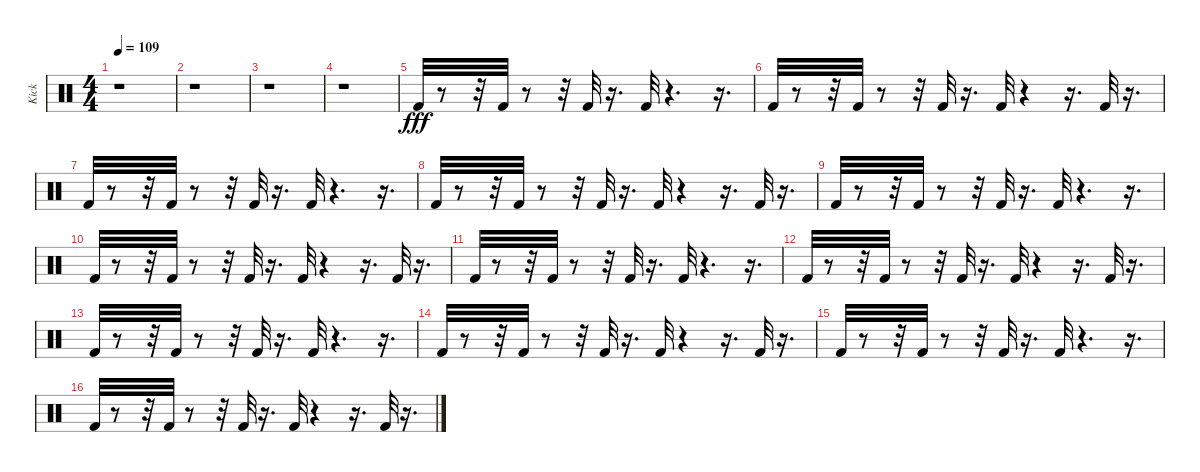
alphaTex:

\track ("Kick" "Kick") {instrument percussion}
\staff {score}
\articulation defaults
\ts (4 4)
\tempo 109
\clef neutral
\ks c
r.1{dy fff} |
r.1 |
r.1 |
r.1 |
"Kick (hit) 2".32 r.8 r.32 "Kick (hit) 2".32 r.8 r.32 "Kick (hit) 2".32 r.16{d} "Kick (hit) 2".32 r.4{d} r.16{d} |
"Kick (hit) 2".32 r.8 r.32 "Kick (hit) 2".32 r.8 r.32 "Kick (hit) 2".32 r.16{d} "Kick (hit) 2".32 r.4 r.16{d} "Kick (hit) 2".32 r.16{d} |
"Kick (hit) 2".32 r.8 r.32 "Kick (hit) 2".32 r.8 r.32 "Kick (hit) 2".32 r.16{d} "Kick (hit) 2".32 r.4{d} r.16{d} |
"Kick (hit) 2".32 r.8 r.32 "Kick (hit) 2".32 r.8 r.32 "Kick (hit) 2".32 r.16{d} "Kick (hit) 2".32 r.4 r.16{d} "Kick (hit) 2".32 r.16{d} |
"Kick (hit) 2".32 r.8 r.32 "Kick (hit) 2".32 r.8 r.32 "Kick (hit) 2".32 r.16{d} "Kick (hit) 2".32 r.4{d} r.16{d} |
"Kick (hit) 2".32 r.8 r.32 "Kick (hit) 2".32 r.8 r.32 "Kick (hit) 2".32 r.16{d} "Kick (hit) 2".32 r.4 r.16{d} "Kick (hit) 2".32 r.16{d} |
"Kick (hit) 2".32 r.8 r.32 "Kick (hit) 2".32 r.8 r.32 "Kick (hit) 2".32 r.16{d} "Kick (hit) 2".32 r.4{d} r.16{d} |
"Kick (hit) 2".32 r.8 r.32 "Kick (hit) 2".32 r.8 r.32 "Kick (hit) 2".32 r.16{d} "Kick (hit) 2".32 r.4 r.16{d} "Kick (hit) 2".32 r.16{d} |
"Kick (hit) 2".32 r.8 r.32 "Kick (hit) 2".32 r.8 r.32 "Kick (hit) 2".32 r.16{d} "Kick (hit) 2".32 r.4{d} r.16{d} |
"Kick (hit) 2".32 r.8 r.32 "Kick (hit) 2".32 r.8 r.32 "Kick (hit) 2".32 r.16{d} "Kick (hit) 2".32 r.4 r.16{d} "Kick (hit) 2".32 r.16{d} |
"Kick (hit) 2".32 r.8 r.32 "Kick (hit) 2".32 r.8 r.32 "Kick (hit) 2".32 r.16{d} "Kick (hit) 2".32 r.4{d} r.16{d} |
"Kick (hit) 2".32 r.8 r.32 "Kick (hit) 2".32 r.8 r.32 "Kick (hit) 2".32 r.16{d} "Kick (hit) 2".32 r.4 r.16{d} "Kick (hit) 2".32 r.16{d}
